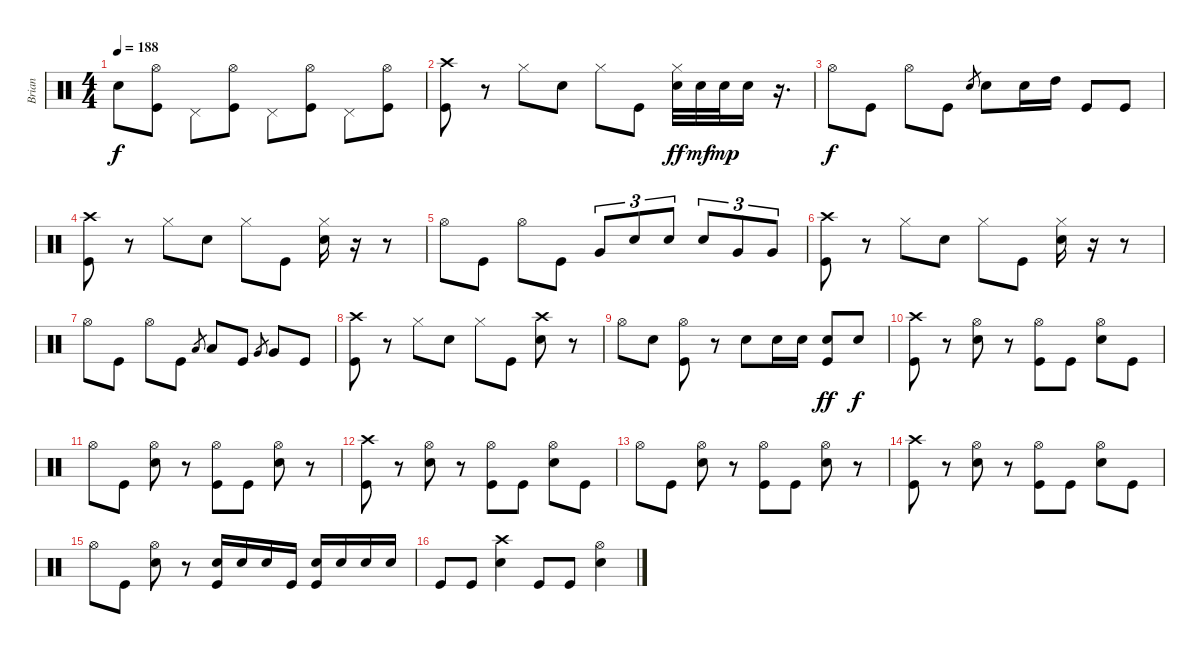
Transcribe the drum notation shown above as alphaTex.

\track ("Brian" "Brian") {instrument percussion}
\staff {score}
\articulation defaults
\ts (4 4)
\tempo 188
\clef neutral
\ks c "Snare (hit) 2".8{dy f}
("Hi-Hat (open)" "Kick (hit)").8 "Pedal Hi-Hat (hit)".8 ("Hi-Hat (open)" "Kick (hit)").8 "Pedal Hi-Hat (hit)".8 ("Hi-Hat (open)" "Kick (hit)").8 "Pedal Hi-Hat (hit)".8 ("Hi-Hat (open)" "Kick (hit)").8 |
("Crash high (hit)" "Kick (hit)").8 r.8 "Hi-Hat (closed)".8 "Snare (hit) 2".8 "Hi-Hat (closed)".8 "Kick (hit)".8 ("Hi-Hat (closed)" "Snare (hit) 2").32{dy ff} "Snare (hit) 2".32{dy mf} "Snare (hit) 2".32{dy mp} "Snare (hit) 2".16 r.16{d} |
"Hi-Hat (open)".8{dy f} "Kick (hit)".8 "Hi-Hat (open)".8 "Kick (hit)".8 "Snare (hit) 2".8{gr} "Snare (hit) 2".8 "Snare (hit) 2".16 "High Tom (hit)".16 "Kick (hit)".8 "Kick (hit)".8 |
("Crash high (hit)" "Kick (hit)").8 r.8 "Hi-Hat (closed)".8 "Snare (hit) 2".8 "Hi-Hat (closed)".8 "Kick (hit)".8 ("Hi-Hat (closed)" "Snare (hit) 2").16 r.16 r.8 |
"Hi-Hat (open)".8 "Kick (hit)".8 "Hi-Hat (open)".8 "Kick (hit)".8 "Very Low Tom (hit)".8{tu (3 2)} "Snare (hit) 2".8{tu (3 2)} "Snare (hit) 2".8{tu (3 2)} "Snare (hit) 2".8{tu (3 2)} "Very Low Tom (hit)".8{tu (3 2)} "Very Low Tom (hit)".8{tu (3 2)} |
("Crash high (hit)" "Kick (hit)").8 r.8 "Hi-Hat (closed)".8 "Snare (hit) 2".8 "Hi-Hat (closed)".8 "Kick (hit)".8 ("Hi-Hat (closed)" "Snare (hit) 2").16 r.16 r.8 |
"Hi-Hat (open)".8 "Kick (hit)".8 "Hi-Hat (open)".8 "Kick (hit)".8 "Low Tom (hit)".8{gr} "Low Tom (hit)".8 "Kick (hit)".8 "Very Low Tom (hit)".8{gr} "Very Low Tom (hit)".8 "Kick (hit)".8 |
("Crash high (hit)" "Kick (hit)").8 r.8 "Hi-Hat (closed)".8 "Snare (hit) 2".8 "Hi-Hat (closed)".8 "Kick (hit)".8 ("Crash high (hit)" "Snare (hit) 2").8 r.8 |
"Hi-Hat (open)".8 "Snare (hit) 2".8 ("Hi-Hat (open)" "Kick (hit)").8 r.8 "Snare (hit) 2".8 "Snare (hit) 2".16 "Snare (hit) 2".16 ("Snare (hit) 2" "Kick (hit)").8{dy ff} "Snare (hit) 2".8{dy f} |
("Crash high (hit)" "Kick (hit)").8 r.8 ("Hi-Hat (open)" "Snare (hit) 2").8 r.8 ("Hi-Hat (open)" "Kick (hit)").8 "Kick (hit)".8 ("Hi-Hat (open)" "Snare (hit) 2").8 "Kick (hit)".8 |
"Hi-Hat (open)".8 "Kick (hit)".8 ("Hi-Hat (open)" "Snare (hit) 2").8 r.8 ("Hi-Hat (open)" "Kick (hit)").8 "Kick (hit)".8 ("Hi-Hat (open)" "Snare (hit) 2").8 r.8 |
("Crash high (hit)" "Kick (hit)").8 r.8 ("Hi-Hat (open)" "Snare (hit) 2").8 r.8 ("Hi-Hat (open)" "Kick (hit)").8 "Kick (hit)".8 ("Hi-Hat (open)" "Snare (hit) 2").8 "Kick (hit)".8 |
"Hi-Hat (open)".8 "Kick (hit)".8 ("Hi-Hat (open)" "Snare (hit) 2").8 r.8 ("Hi-Hat (open)" "Kick (hit)").8 "Kick (hit)".8 ("Hi-Hat (open)" "Snare (hit) 2").8 r.8 |
("Crash high (hit)" "Kick (hit)").8 r.8 ("Hi-Hat (open)" "Snare (hit) 2").8 r.8 ("Hi-Hat (open)" "Kick (hit)").8 "Kick (hit)".8 ("Hi-Hat (open)" "Snare (hit) 2").8 "Kick (hit)".8 |
"Hi-Hat (open)".8 "Kick (hit)".8 ("Hi-Hat (open)" "Snare (hit) 2").8 r.8 ("Snare (hit) 2" "Kick (hit)").16 "Snare (hit) 2".16 "Snare (hit) 2".16 "Kick (hit)".16 ("Snare (hit) 2" "Kick (hit)").16 "Snare (hit) 2".16 "Snare (hit) 2".16 "Snare (hit) 2".16 |
"Kick (hit)".8 "Kick (hit)".8 ("Crash high (hit)" "Snare (hit) 2").4 "Kick (hit)".8 "Kick (hit)".8 ("Hi-Hat (open)" "Snare (hit) 2").4
